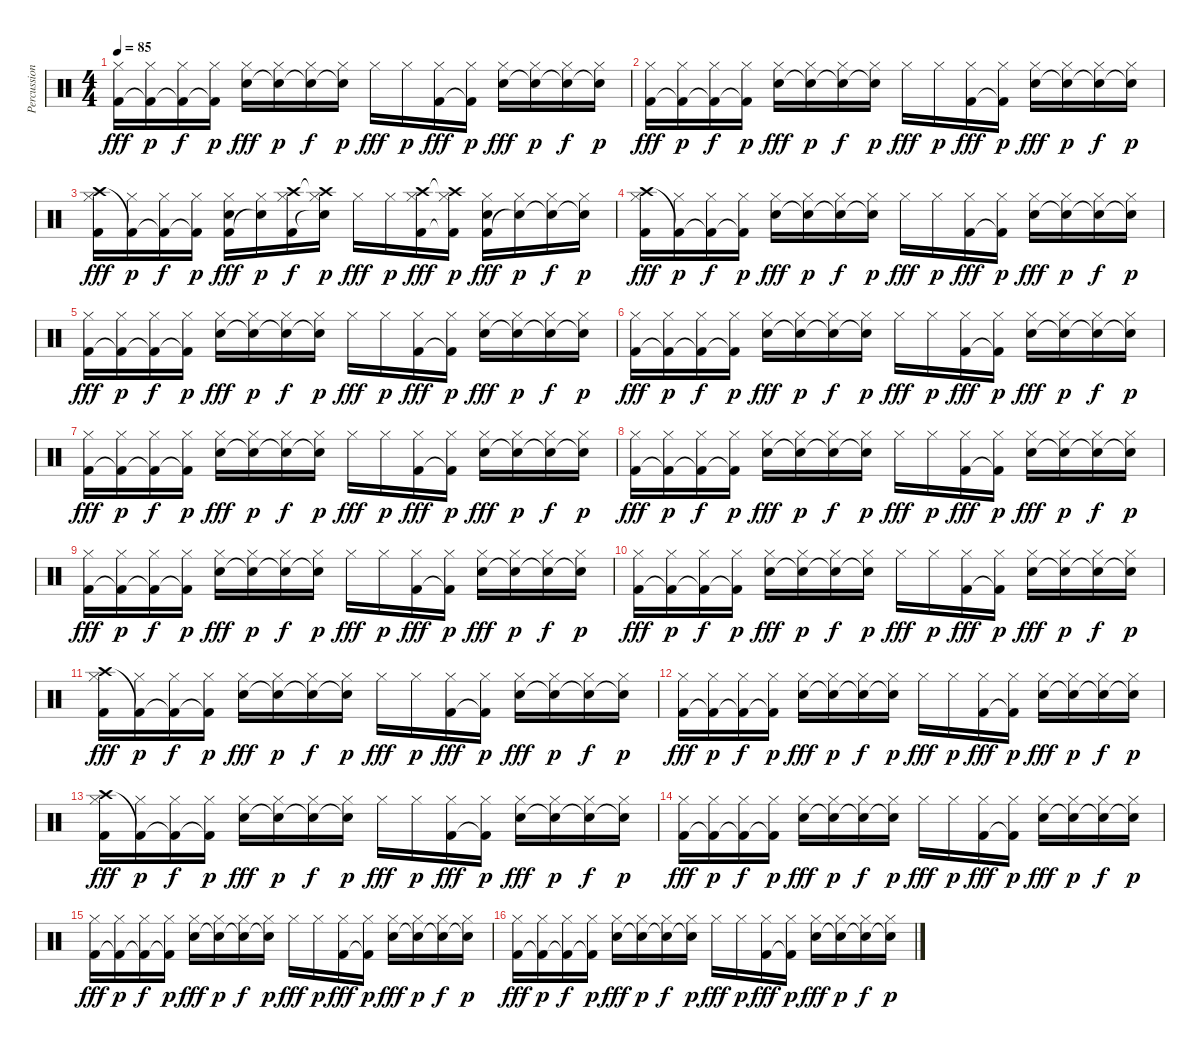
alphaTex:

\track ("Percussion" "Percussion") {instrument percussion}
\staff {score}
\articulation defaults
\ts (4 4)
\tempo 85
\clef neutral
\ks c
("Hi-Hat (closed)" "Kick (hit) 2").16{dy fff} ("Hi-Hat (closed)" "Kick (hit) 2"{t}).16{dy p} ("Hi-Hat (closed)" "Kick (hit) 2"{t}).16{dy f} ("Hi-Hat (closed)" "Kick (hit) 2"{t}).16{dy p} ("Hi-Hat (closed)" "Snare (hit) 2").16{dy fff} ("Hi-Hat (closed)" "Snare (hit) 2"{t}).16{dy p} ("Hi-Hat (closed)" "Snare (hit) 2"{t}).16{dy f} ("Hi-Hat (closed)" "Snare (hit) 2"{t}).16{dy p} "Hi-Hat (closed)".16{dy fff} "Hi-Hat (closed)".16{dy p} ("Hi-Hat (closed)" "Kick (hit) 2").16{dy fff} ("Hi-Hat (closed)" "Kick (hit) 2"{t}).16{dy p} ("Hi-Hat (closed)" "Snare (hit) 2").16{dy fff} ("Hi-Hat (closed)" "Snare (hit) 2"{t}).16{dy p} ("Hi-Hat (closed)" "Snare (hit) 2"{t}).16{dy f} ("Hi-Hat (closed)" "Snare (hit) 2"{t}).16{dy p} |
("Hi-Hat (closed)" "Kick (hit) 2").16{dy fff} ("Hi-Hat (closed)" "Kick (hit) 2"{t}).16{dy p} ("Hi-Hat (closed)" "Kick (hit) 2"{t}).16{dy f} ("Hi-Hat (closed)" "Kick (hit) 2"{t}).16{dy p} ("Hi-Hat (closed)" "Snare (hit) 2").16{dy fff} ("Hi-Hat (closed)" "Snare (hit) 2"{t}).16{dy p} ("Hi-Hat (closed)" "Snare (hit) 2"{t}).16{dy f} ("Hi-Hat (closed)" "Snare (hit) 2"{t}).16{dy p} "Hi-Hat (closed)".16{dy fff} "Hi-Hat (closed)".16{dy p} ("Hi-Hat (closed)" "Kick (hit) 2").16{dy fff} ("Hi-Hat (closed)" "Kick (hit) 2"{t}).16{dy p} ("Hi-Hat (closed)" "Snare (hit) 2").16{dy fff} ("Hi-Hat (closed)" "Snare (hit) 2"{t}).16{dy p} ("Hi-Hat (closed)" "Snare (hit) 2"{t}).16{dy f} ("Hi-Hat (closed)" "Snare (hit) 2"{t}).16{dy p} |
("Hi-Hat (closed)" "Crash high (hit)" "Kick (hit) 2").16{dy fff} ("Hi-Hat (closed)" "Kick (hit) 2"{t}).16{dy p} ("Hi-Hat (closed)" "Kick (hit) 2"{t}).16{dy f} ("Hi-Hat (closed)" "Kick (hit) 2"{t}).16{dy p} ("Hi-Hat (closed)" "Kick (hit) 2" "Snare (hit) 2").16{dy fff} ("Hi-Hat (closed)" "Snare (hit) 2"{t}).16{dy p} ("Hi-Hat (closed)" "Crash high (hit)" "Kick (hit) 2").16{dy f} ("Hi-Hat (closed)" "Crash high (hit)"{t} "Snare (hit) 2"{t}).16{dy p} "Hi-Hat (closed)".16{dy fff} "Hi-Hat (closed)".16{dy p} ("Hi-Hat (closed)" "Crash high (hit)" "Kick (hit) 2").16{dy fff} ("Hi-Hat (closed)" "Crash high (hit)"{t} "Kick (hit) 2"{t}).16{dy p} ("Hi-Hat (closed)" "Kick (hit) 2" "Snare (hit) 2").16{dy fff} ("Hi-Hat (closed)" "Snare (hit) 2"{t}).16{dy p} ("Hi-Hat (closed)" "Snare (hit) 2"{t}).16{dy f} ("Hi-Hat (closed)" "Snare (hit) 2"{t}).16{dy p} |
("Hi-Hat (closed)" "Crash high (hit)" "Kick (hit) 2").16{dy fff} ("Hi-Hat (closed)" "Kick (hit) 2"{t}).16{dy p} ("Hi-Hat (closed)" "Kick (hit) 2"{t}).16{dy f} ("Hi-Hat (closed)" "Kick (hit) 2"{t}).16{dy p} ("Hi-Hat (closed)" "Snare (hit) 2").16{dy fff} ("Hi-Hat (closed)" "Snare (hit) 2"{t}).16{dy p} ("Hi-Hat (closed)" "Snare (hit) 2"{t}).16{dy f} ("Hi-Hat (closed)" "Snare (hit) 2"{t}).16{dy p} "Hi-Hat (closed)".16{dy fff} "Hi-Hat (closed)".16{dy p} ("Hi-Hat (closed)" "Kick (hit) 2").16{dy fff} ("Hi-Hat (closed)" "Kick (hit) 2"{t}).16{dy p} ("Hi-Hat (closed)" "Snare (hit) 2").16{dy fff} ("Hi-Hat (closed)" "Snare (hit) 2"{t}).16{dy p} ("Hi-Hat (closed)" "Snare (hit) 2"{t}).16{dy f} ("Hi-Hat (closed)" "Snare (hit) 2"{t}).16{dy p} |
("Hi-Hat (closed)" "Kick (hit) 2").16{dy fff} ("Hi-Hat (closed)" "Kick (hit) 2"{t}).16{dy p} ("Hi-Hat (closed)" "Kick (hit) 2"{t}).16{dy f} ("Hi-Hat (closed)" "Kick (hit) 2"{t}).16{dy p} ("Hi-Hat (closed)" "Snare (hit) 2").16{dy fff} ("Hi-Hat (closed)" "Snare (hit) 2"{t}).16{dy p} ("Hi-Hat (closed)" "Snare (hit) 2"{t}).16{dy f} ("Hi-Hat (closed)" "Snare (hit) 2"{t}).16{dy p} "Hi-Hat (closed)".16{dy fff} "Hi-Hat (closed)".16{dy p} ("Hi-Hat (closed)" "Kick (hit) 2").16{dy fff} ("Hi-Hat (closed)" "Kick (hit) 2"{t}).16{dy p} ("Hi-Hat (closed)" "Snare (hit) 2").16{dy fff} ("Hi-Hat (closed)" "Snare (hit) 2"{t}).16{dy p} ("Hi-Hat (closed)" "Snare (hit) 2"{t}).16{dy f} ("Hi-Hat (closed)" "Snare (hit) 2"{t}).16{dy p} |
("Hi-Hat (closed)" "Kick (hit) 2").16{dy fff} ("Hi-Hat (closed)" "Kick (hit) 2"{t}).16{dy p} ("Hi-Hat (closed)" "Kick (hit) 2"{t}).16{dy f} ("Hi-Hat (closed)" "Kick (hit) 2"{t}).16{dy p} ("Hi-Hat (closed)" "Snare (hit) 2").16{dy fff} ("Hi-Hat (closed)" "Snare (hit) 2"{t}).16{dy p} ("Hi-Hat (closed)" "Snare (hit) 2"{t}).16{dy f} ("Hi-Hat (closed)" "Snare (hit) 2"{t}).16{dy p} "Hi-Hat (closed)".16{dy fff} "Hi-Hat (closed)".16{dy p} ("Hi-Hat (closed)" "Kick (hit) 2").16{dy fff} ("Hi-Hat (closed)" "Kick (hit) 2"{t}).16{dy p} ("Hi-Hat (closed)" "Snare (hit) 2").16{dy fff} ("Hi-Hat (closed)" "Snare (hit) 2"{t}).16{dy p} ("Hi-Hat (closed)" "Snare (hit) 2"{t}).16{dy f} ("Hi-Hat (closed)" "Snare (hit) 2"{t}).16{dy p} |
("Hi-Hat (closed)" "Kick (hit) 2").16{dy fff} ("Hi-Hat (closed)" "Kick (hit) 2"{t}).16{dy p} ("Hi-Hat (closed)" "Kick (hit) 2"{t}).16{dy f} ("Hi-Hat (closed)" "Kick (hit) 2"{t}).16{dy p} ("Hi-Hat (closed)" "Snare (hit) 2").16{dy fff} ("Hi-Hat (closed)" "Snare (hit) 2"{t}).16{dy p} ("Hi-Hat (closed)" "Snare (hit) 2"{t}).16{dy f} ("Hi-Hat (closed)" "Snare (hit) 2"{t}).16{dy p} "Hi-Hat (closed)".16{dy fff} "Hi-Hat (closed)".16{dy p} ("Hi-Hat (closed)" "Kick (hit) 2").16{dy fff} ("Hi-Hat (closed)" "Kick (hit) 2"{t}).16{dy p} ("Hi-Hat (closed)" "Snare (hit) 2").16{dy fff} ("Hi-Hat (closed)" "Snare (hit) 2"{t}).16{dy p} ("Hi-Hat (closed)" "Snare (hit) 2"{t}).16{dy f} ("Hi-Hat (closed)" "Snare (hit) 2"{t}).16{dy p} |
("Hi-Hat (closed)" "Kick (hit) 2").16{dy fff} ("Hi-Hat (closed)" "Kick (hit) 2"{t}).16{dy p} ("Hi-Hat (closed)" "Kick (hit) 2"{t}).16{dy f} ("Hi-Hat (closed)" "Kick (hit) 2"{t}).16{dy p} ("Hi-Hat (closed)" "Snare (hit) 2").16{dy fff} ("Hi-Hat (closed)" "Snare (hit) 2"{t}).16{dy p} ("Hi-Hat (closed)" "Snare (hit) 2"{t}).16{dy f} ("Hi-Hat (closed)" "Snare (hit) 2"{t}).16{dy p} "Hi-Hat (closed)".16{dy fff} "Hi-Hat (closed)".16{dy p} ("Hi-Hat (closed)" "Kick (hit) 2").16{dy fff} ("Hi-Hat (closed)" "Kick (hit) 2"{t}).16{dy p} ("Hi-Hat (closed)" "Snare (hit) 2").16{dy fff} ("Hi-Hat (closed)" "Snare (hit) 2"{t}).16{dy p} ("Hi-Hat (closed)" "Snare (hit) 2"{t}).16{dy f} ("Hi-Hat (closed)" "Snare (hit) 2"{t}).16{dy p} |
("Hi-Hat (closed)" "Kick (hit) 2").16{dy fff} ("Hi-Hat (closed)" "Kick (hit) 2"{t}).16{dy p} ("Hi-Hat (closed)" "Kick (hit) 2"{t}).16{dy f} ("Hi-Hat (closed)" "Kick (hit) 2"{t}).16{dy p} ("Hi-Hat (closed)" "Snare (hit) 2").16{dy fff} ("Hi-Hat (closed)" "Snare (hit) 2"{t}).16{dy p} ("Hi-Hat (closed)" "Snare (hit) 2"{t}).16{dy f} ("Hi-Hat (closed)" "Snare (hit) 2"{t}).16{dy p} "Hi-Hat (closed)".16{dy fff} "Hi-Hat (closed)".16{dy p} ("Hi-Hat (closed)" "Kick (hit) 2").16{dy fff} ("Hi-Hat (closed)" "Kick (hit) 2"{t}).16{dy p} ("Hi-Hat (closed)" "Snare (hit) 2").16{dy fff} ("Hi-Hat (closed)" "Snare (hit) 2"{t}).16{dy p} ("Hi-Hat (closed)" "Snare (hit) 2"{t}).16{dy f} ("Hi-Hat (closed)" "Snare (hit) 2"{t}).16{dy p} |
("Hi-Hat (closed)" "Kick (hit) 2").16{dy fff} ("Hi-Hat (closed)" "Kick (hit) 2"{t}).16{dy p} ("Hi-Hat (closed)" "Kick (hit) 2"{t}).16{dy f} ("Hi-Hat (closed)" "Kick (hit) 2"{t}).16{dy p} ("Hi-Hat (closed)" "Snare (hit) 2").16{dy fff} ("Hi-Hat (closed)" "Snare (hit) 2"{t}).16{dy p} ("Hi-Hat (closed)" "Snare (hit) 2"{t}).16{dy f} ("Hi-Hat (closed)" "Snare (hit) 2"{t}).16{dy p} "Hi-Hat (closed)".16{dy fff} "Hi-Hat (closed)".16{dy p} ("Hi-Hat (closed)" "Kick (hit) 2").16{dy fff} ("Hi-Hat (closed)" "Kick (hit) 2"{t}).16{dy p} ("Hi-Hat (closed)" "Snare (hit) 2").16{dy fff} ("Hi-Hat (closed)" "Snare (hit) 2"{t}).16{dy p} ("Hi-Hat (closed)" "Snare (hit) 2"{t}).16{dy f} ("Hi-Hat (closed)" "Snare (hit) 2"{t}).16{dy p} |
("Hi-Hat (closed)" "Crash high (hit)" "Kick (hit) 2").16{dy fff} ("Hi-Hat (closed)" "Kick (hit) 2"{t}).16{dy p} ("Hi-Hat (closed)" "Kick (hit) 2"{t}).16{dy f} ("Hi-Hat (closed)" "Kick (hit) 2"{t}).16{dy p} ("Hi-Hat (closed)" "Snare (hit) 2").16{dy fff} ("Hi-Hat (closed)" "Snare (hit) 2"{t}).16{dy p} ("Hi-Hat (closed)" "Snare (hit) 2"{t}).16{dy f} ("Hi-Hat (closed)" "Snare (hit) 2"{t}).16{dy p} "Hi-Hat (closed)".16{dy fff} "Hi-Hat (closed)".16{dy p} ("Hi-Hat (closed)" "Kick (hit) 2").16{dy fff} ("Hi-Hat (closed)" "Kick (hit) 2"{t}).16{dy p} ("Hi-Hat (closed)" "Snare (hit) 2").16{dy fff} ("Hi-Hat (closed)" "Snare (hit) 2"{t}).16{dy p} ("Hi-Hat (closed)" "Snare (hit) 2"{t}).16{dy f} ("Hi-Hat (closed)" "Snare (hit) 2"{t}).16{dy p} |
("Hi-Hat (closed)" "Kick (hit) 2").16{dy fff} ("Hi-Hat (closed)" "Kick (hit) 2"{t}).16{dy p} ("Hi-Hat (closed)" "Kick (hit) 2"{t}).16{dy f} ("Hi-Hat (closed)" "Kick (hit) 2"{t}).16{dy p} ("Hi-Hat (closed)" "Snare (hit) 2").16{dy fff} ("Hi-Hat (closed)" "Snare (hit) 2"{t}).16{dy p} ("Hi-Hat (closed)" "Snare (hit) 2"{t}).16{dy f} ("Hi-Hat (closed)" "Snare (hit) 2"{t}).16{dy p} "Hi-Hat (closed)".16{dy fff} "Hi-Hat (closed)".16{dy p} ("Hi-Hat (closed)" "Kick (hit) 2").16{dy fff} ("Hi-Hat (closed)" "Kick (hit) 2"{t}).16{dy p} ("Hi-Hat (closed)" "Snare (hit) 2").16{dy fff} ("Hi-Hat (closed)" "Snare (hit) 2"{t}).16{dy p} ("Hi-Hat (closed)" "Snare (hit) 2"{t}).16{dy f} ("Hi-Hat (closed)" "Snare (hit) 2"{t}).16{dy p} |
("Hi-Hat (closed)" "Crash high (hit)" "Kick (hit) 2").16{dy fff} ("Hi-Hat (closed)" "Kick (hit) 2"{t}).16{dy p} ("Hi-Hat (closed)" "Kick (hit) 2"{t}).16{dy f} ("Hi-Hat (closed)" "Kick (hit) 2"{t}).16{dy p} ("Hi-Hat (closed)" "Snare (hit) 2").16{dy fff} ("Hi-Hat (closed)" "Snare (hit) 2"{t}).16{dy p} ("Hi-Hat (closed)" "Snare (hit) 2"{t}).16{dy f} ("Hi-Hat (closed)" "Snare (hit) 2"{t}).16{dy p} "Hi-Hat (closed)".16{dy fff} "Hi-Hat (closed)".16{dy p} ("Hi-Hat (closed)" "Kick (hit) 2").16{dy fff} ("Hi-Hat (closed)" "Kick (hit) 2"{t}).16{dy p} ("Hi-Hat (closed)" "Snare (hit) 2").16{dy fff} ("Hi-Hat (closed)" "Snare (hit) 2"{t}).16{dy p} ("Hi-Hat (closed)" "Snare (hit) 2"{t}).16{dy f} ("Hi-Hat (closed)" "Snare (hit) 2"{t}).16{dy p} |
("Hi-Hat (closed)" "Kick (hit) 2").16{dy fff} ("Hi-Hat (closed)" "Kick (hit) 2"{t}).16{dy p} ("Hi-Hat (closed)" "Kick (hit) 2"{t}).16{dy f} ("Hi-Hat (closed)" "Kick (hit) 2"{t}).16{dy p} ("Hi-Hat (closed)" "Snare (hit) 2").16{dy fff} ("Hi-Hat (closed)" "Snare (hit) 2"{t}).16{dy p} ("Hi-Hat (closed)" "Snare (hit) 2"{t}).16{dy f} ("Hi-Hat (closed)" "Snare (hit) 2"{t}).16{dy p} "Hi-Hat (closed)".16{dy fff} "Hi-Hat (closed)".16{dy p} ("Hi-Hat (closed)" "Kick (hit) 2").16{dy fff} ("Hi-Hat (closed)" "Kick (hit) 2"{t}).16{dy p} ("Hi-Hat (closed)" "Snare (hit) 2").16{dy fff} ("Hi-Hat (closed)" "Snare (hit) 2"{t}).16{dy p} ("Hi-Hat (closed)" "Snare (hit) 2"{t}).16{dy f} ("Hi-Hat (closed)" "Snare (hit) 2"{t}).16{dy p} |
("Hi-Hat (closed)" "Kick (hit) 2").16{dy fff} ("Hi-Hat (closed)" "Kick (hit) 2"{t}).16{dy p} ("Hi-Hat (closed)" "Kick (hit) 2"{t}).16{dy f} ("Hi-Hat (closed)" "Kick (hit) 2"{t}).16{dy p} ("Hi-Hat (closed)" "Snare (hit) 2").16{dy fff} ("Hi-Hat (closed)" "Snare (hit) 2"{t}).16{dy p} ("Hi-Hat (closed)" "Snare (hit) 2"{t}).16{dy f} ("Hi-Hat (closed)" "Snare (hit) 2"{t}).16{dy p} "Hi-Hat (closed)".16{dy fff} "Hi-Hat (closed)".16{dy p} ("Hi-Hat (closed)" "Kick (hit) 2").16{dy fff} ("Hi-Hat (closed)" "Kick (hit) 2"{t}).16{dy p} ("Hi-Hat (closed)" "Snare (hit) 2").16{dy fff} ("Hi-Hat (closed)" "Snare (hit) 2"{t}).16{dy p} ("Hi-Hat (closed)" "Snare (hit) 2"{t}).16{dy f} ("Hi-Hat (closed)" "Snare (hit) 2"{t}).16{dy p} |
("Hi-Hat (closed)" "Kick (hit) 2").16{dy fff} ("Hi-Hat (closed)" "Kick (hit) 2"{t}).16{dy p} ("Hi-Hat (closed)" "Kick (hit) 2"{t}).16{dy f} ("Hi-Hat (closed)" "Kick (hit) 2"{t}).16{dy p} ("Hi-Hat (closed)" "Snare (hit) 2").16{dy fff} ("Hi-Hat (closed)" "Snare (hit) 2"{t}).16{dy p} ("Hi-Hat (closed)" "Snare (hit) 2"{t}).16{dy f} ("Hi-Hat (closed)" "Snare (hit) 2"{t}).16{dy p} "Hi-Hat (closed)".16{dy fff} "Hi-Hat (closed)".16{dy p} ("Hi-Hat (closed)" "Kick (hit) 2").16{dy fff} ("Hi-Hat (closed)" "Kick (hit) 2"{t}).16{dy p} ("Hi-Hat (closed)" "Snare (hit) 2").16{dy fff} ("Hi-Hat (closed)" "Snare (hit) 2"{t}).16{dy p} ("Hi-Hat (closed)" "Snare (hit) 2"{t}).16{dy f} ("Hi-Hat (closed)" "Snare (hit) 2"{t}).16{dy p}
